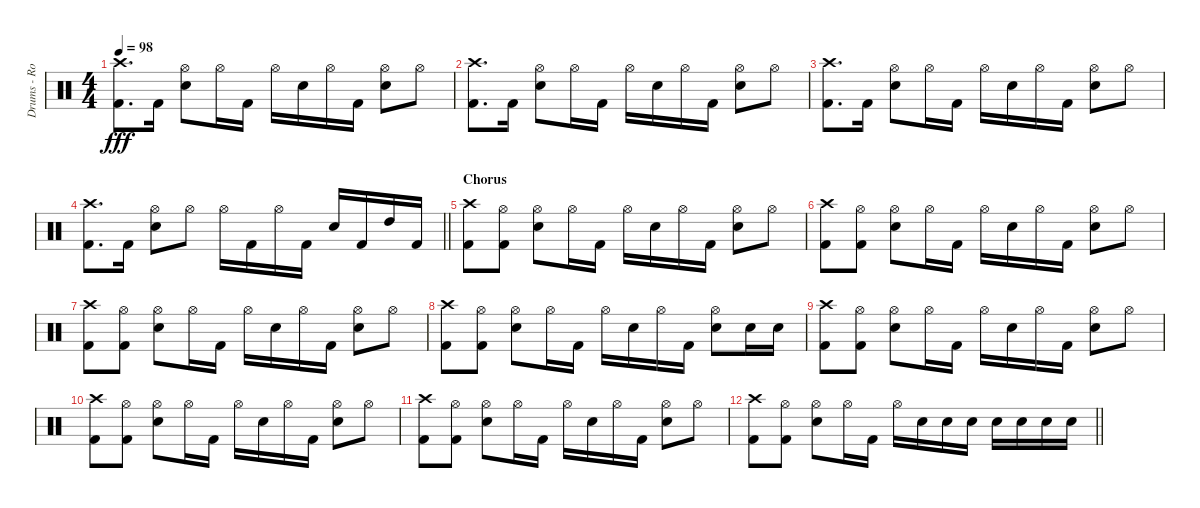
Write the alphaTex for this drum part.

\track ("Drums - Rob Bourdon" "Drums - Ro") {instrument percussion}
\staff {score}
\articulation defaults
\ts (4 4)
\tempo 98
\clef neutral
\ks c
("Crash high (hit)" "Kick (hit) 2").8{d dy fff} "Kick (hit) 2".16 ("Hi-Hat (open)" "Snare (hit) 2").8 "Hi-Hat (open)".16 "Kick (hit) 2".16 "Hi-Hat (open)".16 "Snare (hit) 2".16 "Hi-Hat (open)".16 "Kick (hit) 2".16 ("Hi-Hat (open)" "Snare (hit) 2").8 "Hi-Hat (open)".8 |
("Crash high (hit)" "Kick (hit) 2").8{d} "Kick (hit) 2".16 ("Hi-Hat (open)" "Snare (hit) 2").8 "Hi-Hat (open)".16 "Kick (hit) 2".16 "Hi-Hat (open)".16 "Snare (hit) 2".16 "Hi-Hat (open)".16 "Kick (hit) 2".16 ("Hi-Hat (open)" "Snare (hit) 2").8 "Hi-Hat (open)".8 |
("Crash high (hit)" "Kick (hit) 2").8{d} "Kick (hit) 2".16 ("Hi-Hat (open)" "Snare (hit) 2").8 "Hi-Hat (open)".16 "Kick (hit) 2".16 "Hi-Hat (open)".16 "Snare (hit) 2".16 "Hi-Hat (open)".16 "Kick (hit) 2".16 ("Hi-Hat (open)" "Snare (hit) 2").8 "Hi-Hat (open)".8 |
\barLineRight lightlight
("Crash high (hit)" "Kick (hit) 2").8{d} "Kick (hit) 2".16 ("Hi-Hat (open)" "Snare (hit) 2").8 "Hi-Hat (open)".8 "Hi-Hat (open)".16 "Kick (hit) 2".16 "Hi-Hat (open)".16 "Kick (hit) 2".16 "Snare (hit) 2".16 "Kick (hit) 2".16 "High Tom (hit)".16 "Kick (hit) 2".16 |
\section ("" "Chorus")
("Crash high (hit)" "Kick (hit) 2").8 ("Hi-Hat (open)" "Kick (hit) 2").8 ("Hi-Hat (open)" "Snare (hit) 2").8 "Hi-Hat (open)".16 "Kick (hit) 2".16 "Hi-Hat (open)".16 "Snare (hit) 2".16 "Hi-Hat (open)".16 "Kick (hit) 2".16 ("Hi-Hat (open)" "Snare (hit) 2").8 "Hi-Hat (open)".8 |
("Crash high (hit)" "Kick (hit) 2").8 ("Hi-Hat (open)" "Kick (hit) 2").8 ("Hi-Hat (open)" "Snare (hit) 2").8 "Hi-Hat (open)".16 "Kick (hit) 2".16 "Hi-Hat (open)".16 "Snare (hit) 2".16 "Hi-Hat (open)".16 "Kick (hit) 2".16 ("Hi-Hat (open)" "Snare (hit) 2").8 "Hi-Hat (open)".8 |
("Crash high (hit)" "Kick (hit) 2").8 ("Hi-Hat (open)" "Kick (hit) 2").8 ("Hi-Hat (open)" "Snare (hit) 2").8 "Hi-Hat (open)".16 "Kick (hit) 2".16 "Hi-Hat (open)".16 "Snare (hit) 2".16 "Hi-Hat (open)".16 "Kick (hit) 2".16 ("Hi-Hat (open)" "Snare (hit) 2").8 "Hi-Hat (open)".8 |
("Crash high (hit)" "Kick (hit) 2").8 ("Hi-Hat (open)" "Kick (hit) 2").8 ("Hi-Hat (open)" "Snare (hit) 2").8 "Hi-Hat (open)".16 "Kick (hit) 2".16 "Hi-Hat (open)".16 "Snare (hit) 2".16 "Hi-Hat (open)".16 "Kick (hit) 2".16 ("Hi-Hat (open)" "Snare (hit) 2").8 "Snare (hit) 2".16 "Snare (hit) 2".16 |
("Crash high (hit)" "Kick (hit) 2").8 ("Hi-Hat (open)" "Kick (hit) 2").8 ("Hi-Hat (open)" "Snare (hit) 2").8 "Hi-Hat (open)".16 "Kick (hit) 2".16 "Hi-Hat (open)".16 "Snare (hit) 2".16 "Hi-Hat (open)".16 "Kick (hit) 2".16 ("Hi-Hat (open)" "Snare (hit) 2").8 "Hi-Hat (open)".8 |
("Crash high (hit)" "Kick (hit) 2").8 ("Hi-Hat (open)" "Kick (hit) 2").8 ("Hi-Hat (open)" "Snare (hit) 2").8 "Hi-Hat (open)".16 "Kick (hit) 2".16 "Hi-Hat (open)".16 "Snare (hit) 2".16 "Hi-Hat (open)".16 "Kick (hit) 2".16 ("Hi-Hat (open)" "Snare (hit) 2").8 "Hi-Hat (open)".8 |
("Crash high (hit)" "Kick (hit) 2").8 ("Hi-Hat (open)" "Kick (hit) 2").8 ("Hi-Hat (open)" "Snare (hit) 2").8 "Hi-Hat (open)".16 "Kick (hit) 2".16 "Hi-Hat (open)".16 "Snare (hit) 2".16 "Hi-Hat (open)".16 "Kick (hit) 2".16 ("Hi-Hat (open)" "Snare (hit) 2").8 "Hi-Hat (open)".8 |
\barLineRight lightlight
("Crash high (hit)" "Kick (hit) 2").8 ("Hi-Hat (open)" "Kick (hit) 2").8 ("Hi-Hat (open)" "Snare (hit) 2").8 "Hi-Hat (open)".16 "Kick (hit) 2".16 "Hi-Hat (open)".16 "Snare (hit) 2".16 "Snare (hit) 2".16 "Snare (hit) 2".16 "Snare (hit) 2".16 "Snare (hit) 2".16 "Snare (hit) 2".16 "Snare (hit) 2".16
